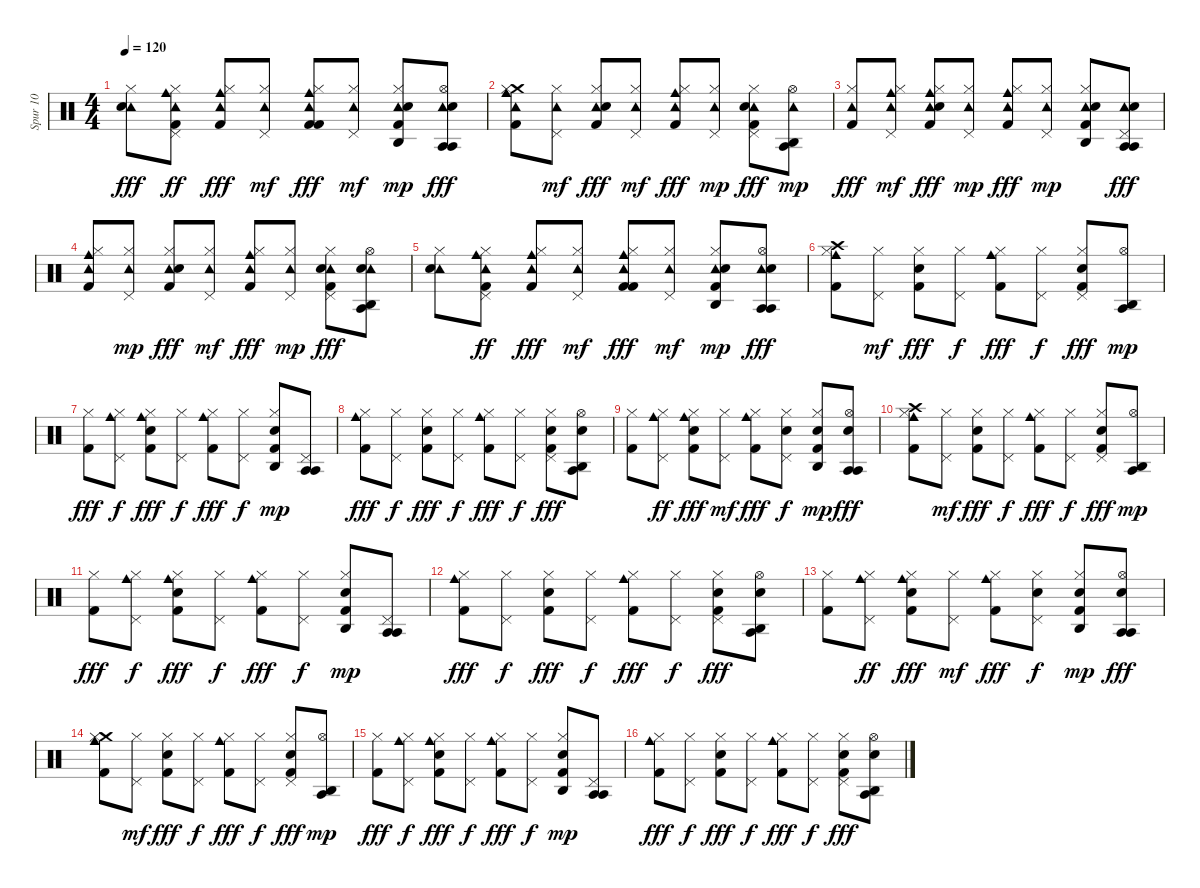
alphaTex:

\track ("Spur 10" "Spur 10") {instrument percussion}
\staff {score}
\articulation defaults
\ts (4 4)
\tempo 120
\clef neutral
\ks c
("Tambourine (hit)" "Electric Snare (hit)" "Hi-Hat (closed)").8{dy fff} ("Tambourine (hit)" "Cowbell medium (hit)" "Hi-Hat (closed)" "Kick (hit) 2" "Pedal Hi-Hat (hit)").8{dy ff} ("Tambourine (hit)" "Hi-Hat (closed)" "Cowbell medium (hit)" "Kick (hit) 2").8{dy fff} ("Tambourine (hit)" "Hi-Hat (closed)" "Pedal Hi-Hat (hit)").8{dy mf} ("Tambourine (hit)" "Cowbell medium (hit)" "Kick (hit) 2" "Hi-Hat (closed)" "Kick (hit) 2").8{dy fff} ("Tambourine (hit)" "Hi-Hat (closed)" "Pedal Hi-Hat (hit)").8{dy mf} ("Tambourine (hit)" "Hi-Hat (closed)" "Kick (hit) 2" "Electric Snare (hit)" "Agogo high (hit)").8{dy mp} ("Agogo tow (hit)" "Tambourine (hit)" "Hi-Hat (open)" "Agogo tow (hit)" "Electric Snare (hit)").8{dy fff} |
("Tambourine (hit)" "Cowbell medium (hit)" "Crash medium (hit)" "Hi-Hat (closed)" "Kick (hit) 2").8 ("Tambourine (hit)" "Hi-Hat (closed)" "Pedal Hi-Hat (hit)").8{dy mf} ("Tambourine (hit)" "Electric Snare (hit)" "Kick (hit) 2" "Hi-Hat (closed)").8{dy fff} ("Tambourine (hit)" "Hi-Hat (closed)" "Pedal Hi-Hat (hit)").8{dy mf} ("Tambourine (hit)" "Cowbell medium (hit)" "Kick (hit) 2" "Hi-Hat (closed)").8{dy fff} ("Tambourine (hit)" "Hi-Hat (closed)" "Pedal Hi-Hat (hit)").8{dy mp} ("Tambourine (hit)" "Kick (hit) 2" "Electric Snare (hit)" "Hi-Hat (closed)" "Pedal Hi-Hat (hit)").8{dy fff} ("Agogo high (hit)" "Tambourine (hit)" "Hi-Hat (open)" "Agogo tow (hit)").8{dy mp} |
("Tambourine (hit)" "Kick (hit) 2" "Hi-Hat (closed)").8{dy fff} ("Cowbell medium (hit)" "Tambourine (hit)" "Hi-Hat (closed)" "Pedal Hi-Hat (hit)").8{dy mf} ("Tambourine (hit)" "Hi-Hat (closed)" "Kick (hit) 2" "Electric Snare (hit)" "Cowbell medium (hit)").8{dy fff} ("Tambourine (hit)" "Hi-Hat (closed)" "Pedal Hi-Hat (hit)").8{dy mp} ("Cowbell medium (hit)" "Tambourine (hit)" "Kick (hit) 2" "Hi-Hat (closed)").8{dy fff} ("Tambourine (hit)" "Hi-Hat (closed)" "Pedal Hi-Hat (hit)").8{dy mp} ("Tambourine (hit)" "Electric Snare (hit)" "Kick (hit) 2" "Hi-Hat (closed)" "Agogo high (hit)").8 ("Agogo tow (hit)" "Tambourine (hit)" "Pedal Hi-Hat (hit)" "Agogo tow (hit)" "Electric Snare (hit)").8{dy fff} |
("Tambourine (hit)" "Cowbell medium (hit)" "Kick (hit) 2" "Hi-Hat (closed)").8 ("Tambourine (hit)" "Hi-Hat (closed)" "Pedal Hi-Hat (hit)").8{dy mp} ("Tambourine (hit)" "Electric Snare (hit)" "Kick (hit) 2" "Hi-Hat (closed)").8{dy fff} ("Tambourine (hit)" "Hi-Hat (closed)" "Pedal Hi-Hat (hit)").8{dy mf} ("Tambourine (hit)" "Cowbell medium (hit)" "Hi-Hat (closed)" "Kick (hit) 2").8{dy fff} ("Tambourine (hit)" "Hi-Hat (closed)" "Pedal Hi-Hat (hit)").8{dy mp} ("Tambourine (hit)" "Kick (hit) 2" "Electric Snare (hit)" "Hi-Hat (closed)" "Pedal Hi-Hat (hit)").8{dy fff} ("Agogo high (hit)" "Tambourine (hit)" "Hi-Hat (open)" "Agogo tow (hit)" "Electric Snare (hit)").8 |
("Tambourine (hit)" "Electric Snare (hit)" "Hi-Hat (closed)").8 ("Tambourine (hit)" "Cowbell medium (hit)" "Hi-Hat (closed)" "Kick (hit) 2" "Pedal Hi-Hat (hit)").8{dy ff} ("Tambourine (hit)" "Hi-Hat (closed)" "Cowbell medium (hit)" "Kick (hit) 2").8{dy fff} ("Tambourine (hit)" "Hi-Hat (closed)" "Pedal Hi-Hat (hit)").8{dy mf} ("Tambourine (hit)" "Cowbell medium (hit)" "Kick (hit) 2" "Hi-Hat (closed)" "Kick (hit) 2").8{dy fff} ("Tambourine (hit)" "Hi-Hat (closed)" "Pedal Hi-Hat (hit)").8{dy mf} ("Tambourine (hit)" "Hi-Hat (closed)" "Kick (hit) 2" "Electric Snare (hit)" "Agogo high (hit)").8{dy mp} ("Agogo tow (hit)" "Tambourine (hit)" "Hi-Hat (open)" "Agogo tow (hit)" "Electric Snare (hit)").8{dy fff} |
("Cowbell medium (hit)" "Crash high (hit)" "Hi-Hat (closed)" "Kick (hit) 2").8 ("Hi-Hat (closed)" "Pedal Hi-Hat (hit)").8{dy mf} ("Electric Snare (hit)" "Kick (hit) 2" "Hi-Hat (closed)").8{dy fff} ("Hi-Hat (closed)" "Pedal Hi-Hat (hit)").8{dy f} ("Cowbell medium (hit)" "Kick (hit) 2" "Hi-Hat (closed)").8{dy fff} ("Hi-Hat (closed)" "Pedal Hi-Hat (hit)").8{dy f} ("Kick (hit) 2" "Electric Snare (hit)" "Hi-Hat (closed)" "Pedal Hi-Hat (hit)").8{dy fff} ("Agogo high (hit)" "Hi-Hat (open)" "Agogo tow (hit)").8{dy mp} |
("Kick (hit) 2" "Hi-Hat (closed)").8{dy fff} ("Cowbell medium (hit)" "Hi-Hat (closed)" "Pedal Hi-Hat (hit)").8{dy f} ("Hi-Hat (closed)" "Kick (hit) 2" "Electric Snare (hit)" "Cowbell medium (hit)").8{dy fff} ("Hi-Hat (closed)" "Pedal Hi-Hat (hit)").8{dy f} ("Cowbell medium (hit)" "Kick (hit) 2" "Hi-Hat (closed)").8{dy fff} ("Hi-Hat (closed)" "Pedal Hi-Hat (hit)").8{dy f} ("Electric Snare (hit)" "Kick (hit) 2" "Hi-Hat (closed)" "Agogo high (hit)").8{dy mp} ("Agogo tow (hit)" "Pedal Hi-Hat (hit)" "Agogo tow (hit)").8 |
("Cowbell medium (hit)" "Kick (hit) 2" "Hi-Hat (closed)").8{dy fff} ("Hi-Hat (closed)" "Pedal Hi-Hat (hit)").8{dy f} ("Electric Snare (hit)" "Kick (hit) 2" "Hi-Hat (closed)").8{dy fff} ("Hi-Hat (closed)" "Pedal Hi-Hat (hit)").8{dy f} ("Cowbell medium (hit)" "Hi-Hat (closed)" "Kick (hit) 2").8{dy fff} ("Hi-Hat (closed)" "Pedal Hi-Hat (hit)").8{dy f} ("Kick (hit) 2" "Electric Snare (hit)" "Hi-Hat (closed)" "Pedal Hi-Hat (hit)").8{dy fff} ("Agogo high (hit)" "Hi-Hat (open)" "Agogo tow (hit)" "Electric Snare (hit)").8 |
("Kick (hit) 2" "Hi-Hat (closed)").8 ("Cowbell medium (hit)" "Hi-Hat (closed)" "Pedal Hi-Hat (hit)").8{dy ff} ("Electric Snare (hit)" "Kick (hit) 2" "Hi-Hat (closed)" "Cowbell medium (hit)").8{dy fff} ("Hi-Hat (closed)" "Pedal Hi-Hat (hit)").8{dy mf} ("Cowbell medium (hit)" "Hi-Hat (closed)" "Kick (hit) 2").8{dy fff} ("Hi-Hat (closed)" "Pedal Hi-Hat (hit)" "Electric Snare (hit)").8{dy f} ("Hi-Hat (closed)" "Kick (hit) 2" "Electric Snare (hit)" "Agogo high (hit)").8{dy mp} ("Agogo tow (hit)" "Hi-Hat (open)" "Agogo tow (hit)" "Electric Snare (hit)").8{dy fff} |
("Cowbell medium (hit)" "Crash high (hit)" "Hi-Hat (closed)" "Kick (hit) 2").8 ("Hi-Hat (closed)" "Pedal Hi-Hat (hit)").8{dy mf} ("Electric Snare (hit)" "Kick (hit) 2" "Hi-Hat (closed)").8{dy fff} ("Hi-Hat (closed)" "Pedal Hi-Hat (hit)").8{dy f} ("Cowbell medium (hit)" "Kick (hit) 2" "Hi-Hat (closed)").8{dy fff} ("Hi-Hat (closed)" "Pedal Hi-Hat (hit)").8{dy f} ("Kick (hit) 2" "Electric Snare (hit)" "Hi-Hat (closed)" "Pedal Hi-Hat (hit)").8{dy fff} ("Agogo high (hit)" "Hi-Hat (open)" "Agogo tow (hit)").8{dy mp} |
("Kick (hit) 2" "Hi-Hat (closed)").8{dy fff} ("Cowbell medium (hit)" "Hi-Hat (closed)" "Pedal Hi-Hat (hit)").8{dy f} ("Hi-Hat (closed)" "Kick (hit) 2" "Electric Snare (hit)" "Cowbell medium (hit)").8{dy fff} ("Hi-Hat (closed)" "Pedal Hi-Hat (hit)").8{dy f} ("Cowbell medium (hit)" "Kick (hit) 2" "Hi-Hat (closed)").8{dy fff} ("Hi-Hat (closed)" "Pedal Hi-Hat (hit)").8{dy f} ("Electric Snare (hit)" "Kick (hit) 2" "Hi-Hat (closed)" "Agogo high (hit)").8{dy mp} ("Agogo tow (hit)" "Pedal Hi-Hat (hit)" "Agogo tow (hit)").8 |
("Cowbell medium (hit)" "Kick (hit) 2" "Hi-Hat (closed)").8{dy fff} ("Hi-Hat (closed)" "Pedal Hi-Hat (hit)").8{dy f} ("Electric Snare (hit)" "Kick (hit) 2" "Hi-Hat (closed)").8{dy fff} ("Hi-Hat (closed)" "Pedal Hi-Hat (hit)").8{dy f} ("Cowbell medium (hit)" "Hi-Hat (closed)" "Kick (hit) 2").8{dy fff} ("Hi-Hat (closed)" "Pedal Hi-Hat (hit)").8{dy f} ("Kick (hit) 2" "Electric Snare (hit)" "Hi-Hat (closed)" "Pedal Hi-Hat (hit)").8{dy fff} ("Agogo high (hit)" "Hi-Hat (open)" "Agogo tow (hit)" "Electric Snare (hit)").8 |
("Kick (hit) 2" "Hi-Hat (closed)").8 ("Cowbell medium (hit)" "Hi-Hat (closed)" "Pedal Hi-Hat (hit)").8{dy ff} ("Electric Snare (hit)" "Kick (hit) 2" "Hi-Hat (closed)" "Cowbell medium (hit)").8{dy fff} ("Hi-Hat (closed)" "Pedal Hi-Hat (hit)").8{dy mf} ("Cowbell medium (hit)" "Hi-Hat (closed)" "Kick (hit) 2").8{dy fff} ("Hi-Hat (closed)" "Pedal Hi-Hat (hit)" "Electric Snare (hit)").8{dy f} ("Hi-Hat (closed)" "Kick (hit) 2" "Electric Snare (hit)" "Agogo high (hit)").8{dy mp} ("Agogo tow (hit)" "Hi-Hat (open)" "Agogo tow (hit)" "Electric Snare (hit)").8{dy fff} |
("Cowbell medium (hit)" "Crash medium (hit)" "Hi-Hat (closed)" "Kick (hit) 2").8 ("Hi-Hat (closed)" "Pedal Hi-Hat (hit)").8{dy mf} ("Electric Snare (hit)" "Kick (hit) 2" "Hi-Hat (closed)").8{dy fff} ("Hi-Hat (closed)" "Pedal Hi-Hat (hit)").8{dy f} ("Cowbell medium (hit)" "Kick (hit) 2" "Hi-Hat (closed)").8{dy fff} ("Hi-Hat (closed)" "Pedal Hi-Hat (hit)").8{dy f} ("Kick (hit) 2" "Electric Snare (hit)" "Hi-Hat (closed)" "Pedal Hi-Hat (hit)").8{dy fff} ("Agogo high (hit)" "Hi-Hat (open)" "Agogo tow (hit)").8{dy mp} |
("Kick (hit) 2" "Hi-Hat (closed)").8{dy fff} ("Cowbell medium (hit)" "Hi-Hat (closed)" "Pedal Hi-Hat (hit)").8{dy f} ("Hi-Hat (closed)" "Kick (hit) 2" "Electric Snare (hit)" "Cowbell medium (hit)").8{dy fff} ("Hi-Hat (closed)" "Pedal Hi-Hat (hit)").8{dy f} ("Cowbell medium (hit)" "Kick (hit) 2" "Hi-Hat (closed)").8{dy fff} ("Hi-Hat (closed)" "Pedal Hi-Hat (hit)").8{dy f} ("Electric Snare (hit)" "Kick (hit) 2" "Hi-Hat (closed)" "Agogo high (hit)").8{dy mp} ("Agogo tow (hit)" "Pedal Hi-Hat (hit)" "Agogo tow (hit)").8 |
("Cowbell medium (hit)" "Kick (hit) 2" "Hi-Hat (closed)").8{dy fff} ("Hi-Hat (closed)" "Pedal Hi-Hat (hit)").8{dy f} ("Electric Snare (hit)" "Kick (hit) 2" "Hi-Hat (closed)").8{dy fff} ("Hi-Hat (closed)" "Pedal Hi-Hat (hit)").8{dy f} ("Cowbell medium (hit)" "Hi-Hat (closed)" "Kick (hit) 2").8{dy fff} ("Hi-Hat (closed)" "Pedal Hi-Hat (hit)").8{dy f} ("Kick (hit) 2" "Electric Snare (hit)" "Hi-Hat (closed)" "Pedal Hi-Hat (hit)").8{dy fff} ("Agogo high (hit)" "Hi-Hat (open)" "Agogo tow (hit)" "Electric Snare (hit)").8
